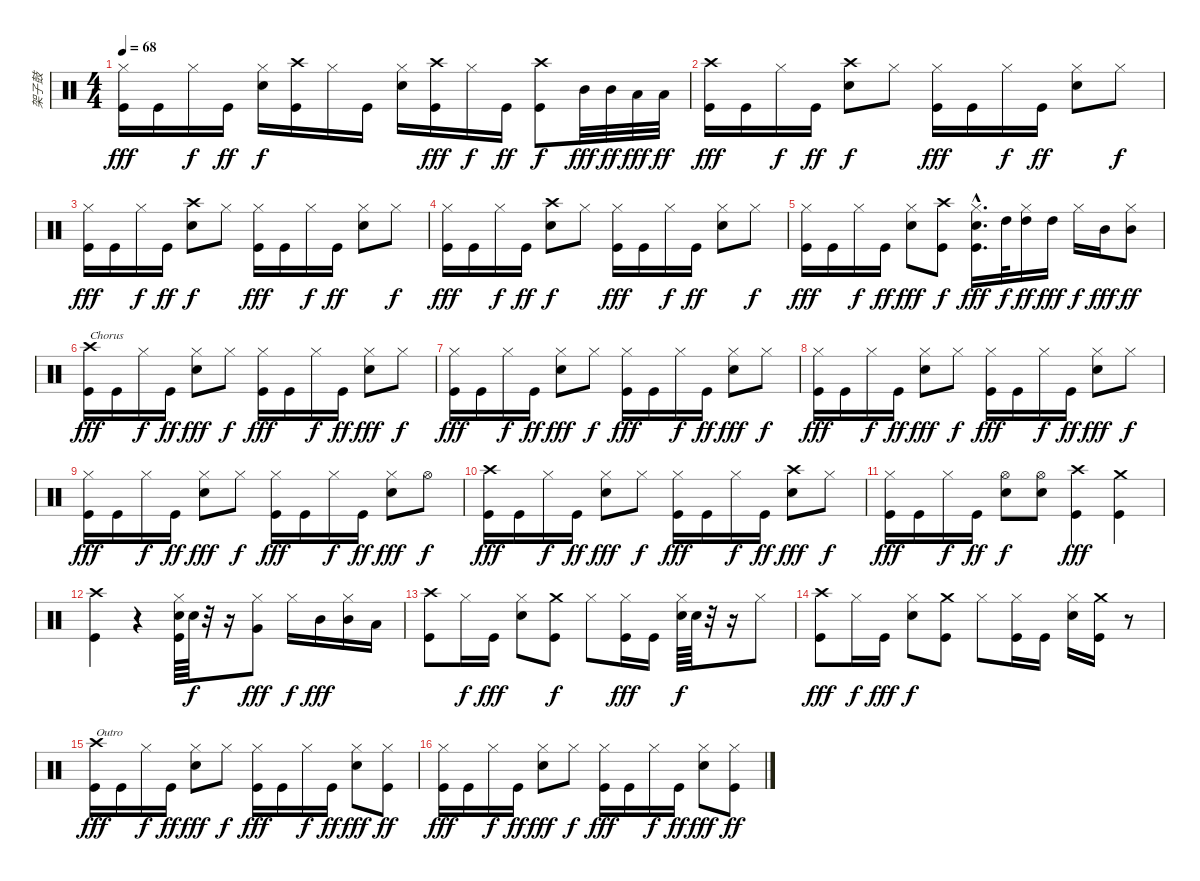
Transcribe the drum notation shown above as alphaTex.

\track ("架子鼓" "架子鼓") {instrument percussion}
\staff {score}
\articulation defaults
\ts (4 4)
\tempo 68
\clef neutral
\ks c
("Hi-Hat (closed)" "Kick (hit)").16{dy fff} "Kick (hit)".16 "Hi-Hat (closed)".16{dy f} "Kick (hit)".16{dy ff} ("Hi-Hat (closed)" "Snare (hit) 2").16{dy f} ("Crash high (hit)" "Kick (hit)").16 "Hi-Hat (closed)".16 "Kick (hit)".16 ("Hi-Hat (closed)" "Snare (hit) 2").16 ("Crash high (hit)" "Kick (hit)").16{dy fff} "Hi-Hat (closed)".16{dy f} "Kick (hit)".16{dy ff} ("Crash high (hit)" "Kick (hit)").8{dy f} "Mid Tom (hit)".32{dy fff} "Mid Tom (hit)".32{dy ff} "Low Tom (hit)".32{dy fff} "Low Tom (hit)".32{dy ff} |
("Crash high (hit)" "Kick (hit)").16{dy fff} "Kick (hit)".16 "Hi-Hat (closed)".16{dy f} "Kick (hit)".16{dy ff} ("Crash high (hit)" "Snare (hit) 2").8{dy f} "Hi-Hat (closed)".8 ("Hi-Hat (closed)" "Kick (hit)").16{dy fff} "Kick (hit)".16 "Hi-Hat (closed)".16{dy f} "Kick (hit)".16{dy ff} ("Hi-Hat (closed)" "Snare (hit) 2").8 "Hi-Hat (closed)".8{dy f} |
("Hi-Hat (closed)" "Kick (hit)").16{dy fff} "Kick (hit)".16 "Hi-Hat (closed)".16{dy f} "Kick (hit)".16{dy ff} ("Crash high (hit)" "Snare (hit) 2").8{dy f} "Hi-Hat (closed)".8 ("Hi-Hat (closed)" "Kick (hit)").16{dy fff} "Kick (hit)".16 "Hi-Hat (closed)".16{dy f} "Kick (hit)".16{dy ff} ("Hi-Hat (closed)" "Snare (hit) 2").8 "Hi-Hat (closed)".8{dy f} |
("Hi-Hat (closed)" "Kick (hit)").16{dy fff} "Kick (hit)".16 "Hi-Hat (closed)".16{dy f} "Kick (hit)".16{dy ff} ("Crash high (hit)" "Snare (hit) 2").8{dy f} "Hi-Hat (closed)".8 ("Hi-Hat (closed)" "Kick (hit)").16{dy fff} "Kick (hit)".16 "Hi-Hat (closed)".16{dy f} "Kick (hit)".16{dy ff} ("Hi-Hat (closed)" "Snare (hit) 2").8 "Hi-Hat (closed)".8{dy f} |
("Hi-Hat (closed)" "Kick (hit)").16{dy fff} "Kick (hit)".16 "Hi-Hat (closed)".16{dy f} "Kick (hit)".16{dy ff} ("Hi-Hat (closed)" "Snare (hit) 2").8{dy fff} ("Crash high (hit)" "Kick (hit)").8{dy f} ("Hi-Hat (closed)"{hac} "Snare (hit) 2"{hac} "Kick (hit)"{hac}).16{d dy fff} "High Tom (hit)".32{dy f} ("Hi-Hat (closed)" "High Tom (hit)").16{dy ff} "High Tom (hit)".16{dy fff} "Hi-Hat (closed)".16{dy f} "Mid Tom (hit)".16{dy fff} ("Hi-Hat (closed)" "Mid Tom (hit)").8{dy ff} |
("Crash high (hit)" "Kick (hit)").16{txt "Chorus" dy fff} "Kick (hit)".16 "Hi-Hat (closed)".16{dy f} "Kick (hit)".16{dy ff} ("Hi-Hat (closed)" "Snare (hit) 2").8{dy fff} "Hi-Hat (closed)".8{dy f} ("Hi-Hat (closed)" "Kick (hit)").16{dy fff} "Kick (hit)".16 "Hi-Hat (closed)".16{dy f} "Kick (hit)".16{dy ff} ("Hi-Hat (closed)" "Snare (hit) 2").8{dy fff} "Hi-Hat (closed)".8{dy f} |
("Hi-Hat (closed)" "Kick (hit)").16{dy fff} "Kick (hit)".16 "Hi-Hat (closed)".16{dy f} "Kick (hit)".16{dy ff} ("Hi-Hat (closed)" "Snare (hit) 2").8{dy fff} "Hi-Hat (closed)".8{dy f} ("Hi-Hat (closed)" "Kick (hit)").16{dy fff} "Kick (hit)".16 "Hi-Hat (closed)".16{dy f} "Kick (hit)".16{dy ff} ("Hi-Hat (closed)" "Snare (hit) 2").8{dy fff} "Hi-Hat (closed)".8{dy f} |
("Hi-Hat (closed)" "Kick (hit)").16{dy fff} "Kick (hit)".16 "Hi-Hat (closed)".16{dy f} "Kick (hit)".16{dy ff} ("Hi-Hat (closed)" "Snare (hit) 2").8{dy fff} "Hi-Hat (closed)".8{dy f} ("Hi-Hat (closed)" "Kick (hit)").16{dy fff} "Kick (hit)".16 "Hi-Hat (closed)".16{dy f} "Kick (hit)".16{dy ff} ("Hi-Hat (closed)" "Snare (hit) 2").8{dy fff} "Hi-Hat (closed)".8{dy f} |
("Hi-Hat (closed)" "Kick (hit)").16{dy fff} "Kick (hit)".16 "Hi-Hat (closed)".16{dy f} "Kick (hit)".16{dy ff} ("Hi-Hat (closed)" "Snare (hit) 2").8{dy fff} "Hi-Hat (closed)".8{dy f} ("Hi-Hat (closed)" "Kick (hit)").16{dy fff} "Kick (hit)".16 "Hi-Hat (closed)".16{dy f} "Kick (hit)".16{dy ff} ("Hi-Hat (closed)" "Snare (hit) 2").8{dy fff} "Hi-Hat (open)".8{dy f} |
("Crash high (hit)" "Kick (hit)").16{dy fff} "Kick (hit)".16 "Hi-Hat (closed)".16{dy f} "Kick (hit)".16{dy ff} ("Hi-Hat (closed)" "Snare (hit) 2").8{dy fff} "Hi-Hat (closed)".8{dy f} ("Hi-Hat (closed)" "Kick (hit)").16{dy fff} "Kick (hit)".16 "Hi-Hat (closed)".16{dy f} "Kick (hit)".16{dy ff} ("Crash high (hit)" "Snare (hit) 2").8{dy fff} "Hi-Hat (closed)".8{dy f} |
("Hi-Hat (closed)" "Kick (hit)").16{dy fff} "Kick (hit)".16 "Hi-Hat (closed)".16{dy f} "Kick (hit)".16{dy ff} ("Hi-Hat (open)" "Snare (hit) 2").8{dy f} ("Hi-Hat (open)" "Snare (hit) 2").8 ("Crash high (hit)" "Kick (hit)").4{dy fff} ("Crash medium (hit)" "Kick (hit)").4 |
("Crash high (hit)" "Kick (hit)").4 r.4 ("Hi-Hat (closed)" "Snare (hit) 2" "Kick (hit)").64 "Snare (hit) 2".64{dy f} r.32 r.16 ("Hi-Hat (closed)" "Very Low Tom (hit)").8{dy fff} "Hi-Hat (closed)".16{dy f} "Mid Tom (hit)".16{dy fff} ("Hi-Hat (closed)" "Mid Tom (hit)").16 "Low Tom (hit)".16 |
("Crash high (hit)" "Kick (hit)").8 "Hi-Hat (closed)".16{dy f} "Kick (hit)".16{dy fff} ("Hi-Hat (closed)" "Snare (hit) 2").8 ("Crash medium (hit)" "Kick (hit)").8{dy f} "Hi-Hat (closed)".8 ("Hi-Hat (closed)" "Kick (hit)").16{dy fff} "Kick (hit)".16 ("Hi-Hat (closed)" "Snare (hit) 2").64{dy f} "Snare (hit) 2".64 r.32 r.16 "Hi-Hat (closed)".8 |
("Crash high (hit)" "Kick (hit)").8{dy fff} "Hi-Hat (closed)".16{dy f} "Kick (hit)".16{dy fff} ("Hi-Hat (closed)" "Snare (hit) 2").8{dy f} ("Crash medium (hit)" "Kick (hit)").8 "Hi-Hat (closed)".8 ("Hi-Hat (closed)" "Kick (hit)").16 "Kick (hit)".16 ("Hi-Hat (closed)" "Snare (hit) 2").16 ("Crash medium (hit)" "Kick (hit)").16 r.8 |
("Crash high (hit)" "Kick (hit)").16{txt "Outro" dy fff} "Kick (hit)".16 "Hi-Hat (closed)".16{dy f} "Kick (hit)".16{dy ff} ("Hi-Hat (closed)" "Snare (hit) 2").8{dy fff} "Hi-Hat (closed)".8{dy f} ("Hi-Hat (closed)" "Kick (hit)").16{dy fff} "Kick (hit)".16 "Hi-Hat (closed)".16{dy f} "Kick (hit)".16{dy ff} ("Hi-Hat (closed)" "Snare (hit) 2").8{dy fff} ("Hi-Hat (closed)" "Kick (hit)").8{dy ff} |
("Hi-Hat (closed)" "Kick (hit)").16{dy fff} "Kick (hit)".16 "Hi-Hat (closed)".16{dy f} "Kick (hit)".16{dy ff} ("Hi-Hat (closed)" "Snare (hit) 2").8{dy fff} "Hi-Hat (closed)".8{dy f} ("Hi-Hat (closed)" "Kick (hit)").16{dy fff} "Kick (hit)".16 "Hi-Hat (closed)".16{dy f} "Kick (hit)".16{dy ff} ("Hi-Hat (closed)" "Snare (hit) 2").8{dy fff} ("Hi-Hat (closed)" "Kick (hit)").8{dy ff}
